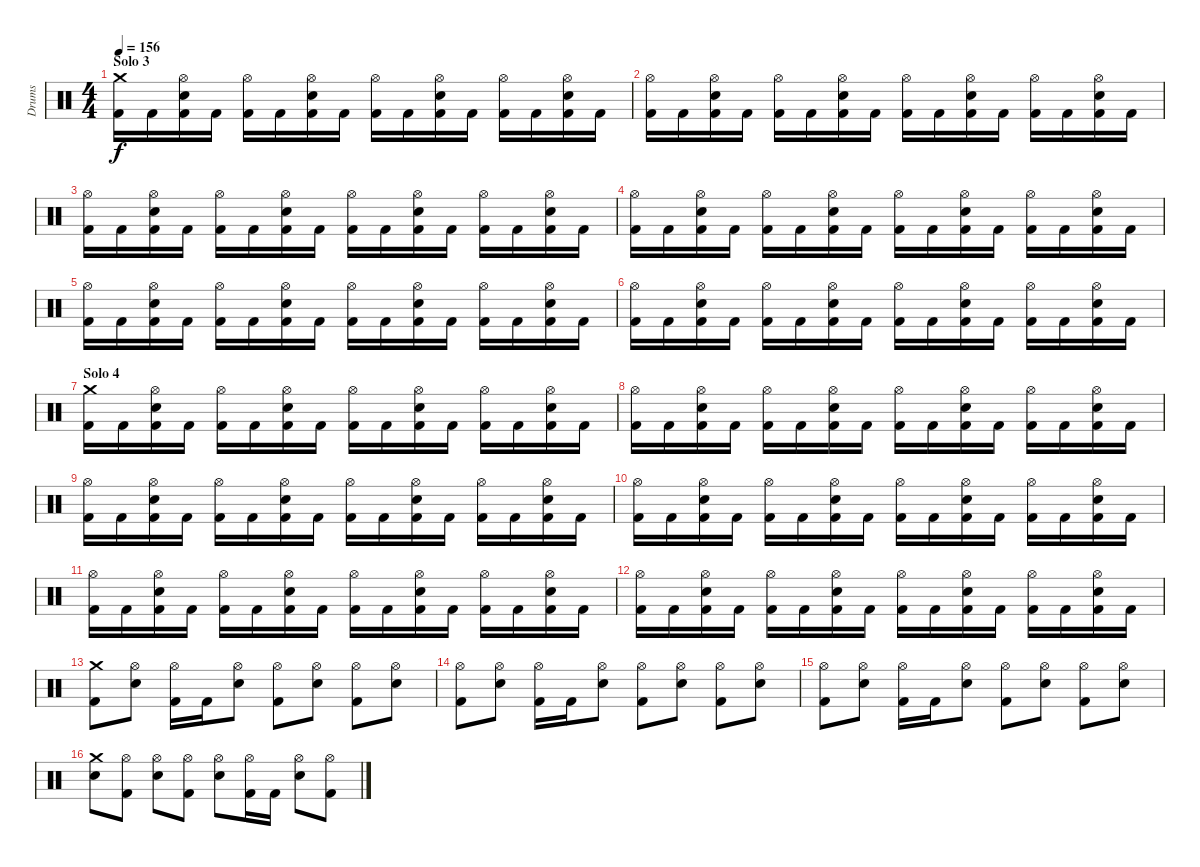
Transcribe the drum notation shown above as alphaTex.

\track ("Drums" "Drums") {instrument percussion}
\staff {score}
\articulation defaults
\ts (4 4)
\section ("" "Solo 3")
\tempo 156
\clef neutral
\ks c
("Kick (hit) 2" "Crash medium (hit)").16{dy f} "Kick (hit) 2".16 ("Kick (hit) 2" "Snare (hit) 2" "Hi-Hat (open)").16 "Kick (hit) 2".16 ("Kick (hit) 2" "Hi-Hat (open)").16 "Kick (hit) 2".16 ("Kick (hit) 2" "Snare (hit) 2" "Hi-Hat (open)").16 "Kick (hit) 2".16 ("Kick (hit) 2" "Hi-Hat (open)").16 "Kick (hit) 2".16 ("Kick (hit) 2" "Snare (hit) 2" "Hi-Hat (open)").16 "Kick (hit) 2".16 ("Kick (hit) 2" "Hi-Hat (open)").16 "Kick (hit) 2".16 ("Kick (hit) 2" "Snare (hit) 2" "Hi-Hat (open)").16 "Kick (hit) 2".16 |
("Kick (hit) 2" "Hi-Hat (open)").16 "Kick (hit) 2".16 ("Kick (hit) 2" "Snare (hit) 2" "Hi-Hat (open)").16 "Kick (hit) 2".16 ("Kick (hit) 2" "Hi-Hat (open)").16 "Kick (hit) 2".16 ("Kick (hit) 2" "Snare (hit) 2" "Hi-Hat (open)").16 "Kick (hit) 2".16 ("Kick (hit) 2" "Hi-Hat (open)").16 "Kick (hit) 2".16 ("Kick (hit) 2" "Snare (hit) 2" "Hi-Hat (open)").16 "Kick (hit) 2".16 ("Kick (hit) 2" "Hi-Hat (open)").16 "Kick (hit) 2".16 ("Kick (hit) 2" "Snare (hit) 2" "Hi-Hat (open)").16 "Kick (hit) 2".16 |
("Kick (hit) 2" "Hi-Hat (open)").16 "Kick (hit) 2".16 ("Kick (hit) 2" "Snare (hit) 2" "Hi-Hat (open)").16 "Kick (hit) 2".16 ("Kick (hit) 2" "Hi-Hat (open)").16 "Kick (hit) 2".16 ("Kick (hit) 2" "Snare (hit) 2" "Hi-Hat (open)").16 "Kick (hit) 2".16 ("Kick (hit) 2" "Hi-Hat (open)").16 "Kick (hit) 2".16 ("Kick (hit) 2" "Snare (hit) 2" "Hi-Hat (open)").16 "Kick (hit) 2".16 ("Kick (hit) 2" "Hi-Hat (open)").16 "Kick (hit) 2".16 ("Kick (hit) 2" "Snare (hit) 2" "Hi-Hat (open)").16 "Kick (hit) 2".16 |
("Kick (hit) 2" "Hi-Hat (open)").16 "Kick (hit) 2".16 ("Kick (hit) 2" "Snare (hit) 2" "Hi-Hat (open)").16 "Kick (hit) 2".16 ("Kick (hit) 2" "Hi-Hat (open)").16 "Kick (hit) 2".16 ("Kick (hit) 2" "Snare (hit) 2" "Hi-Hat (open)").16 "Kick (hit) 2".16 ("Kick (hit) 2" "Hi-Hat (open)").16 "Kick (hit) 2".16 ("Kick (hit) 2" "Snare (hit) 2" "Hi-Hat (open)").16 "Kick (hit) 2".16 ("Kick (hit) 2" "Hi-Hat (open)").16 "Kick (hit) 2".16 ("Kick (hit) 2" "Snare (hit) 2" "Hi-Hat (open)").16 "Kick (hit) 2".16 |
("Kick (hit) 2" "Hi-Hat (open)").16 "Kick (hit) 2".16 ("Kick (hit) 2" "Snare (hit) 2" "Hi-Hat (open)").16 "Kick (hit) 2".16 ("Kick (hit) 2" "Hi-Hat (open)").16 "Kick (hit) 2".16 ("Kick (hit) 2" "Snare (hit) 2" "Hi-Hat (open)").16 "Kick (hit) 2".16 ("Kick (hit) 2" "Hi-Hat (open)").16 "Kick (hit) 2".16 ("Kick (hit) 2" "Snare (hit) 2" "Hi-Hat (open)").16 "Kick (hit) 2".16 ("Kick (hit) 2" "Hi-Hat (open)").16 "Kick (hit) 2".16 ("Kick (hit) 2" "Snare (hit) 2" "Hi-Hat (open)").16 "Kick (hit) 2".16 |
("Kick (hit) 2" "Hi-Hat (open)").16 "Kick (hit) 2".16 ("Kick (hit) 2" "Snare (hit) 2" "Hi-Hat (open)").16 "Kick (hit) 2".16 ("Kick (hit) 2" "Hi-Hat (open)").16 "Kick (hit) 2".16 ("Kick (hit) 2" "Snare (hit) 2" "Hi-Hat (open)").16 "Kick (hit) 2".16 ("Kick (hit) 2" "Hi-Hat (open)").16 "Kick (hit) 2".16 ("Kick (hit) 2" "Snare (hit) 2" "Hi-Hat (open)").16 "Kick (hit) 2".16 ("Kick (hit) 2" "Hi-Hat (open)").16 "Kick (hit) 2".16 ("Kick (hit) 2" "Snare (hit) 2" "Hi-Hat (open)").16 "Kick (hit) 2".16 |
\section ("" "Solo 4")
("Kick (hit) 2" "Crash medium (hit)").16 "Kick (hit) 2".16 ("Kick (hit) 2" "Snare (hit) 2" "Hi-Hat (open)").16 "Kick (hit) 2".16 ("Kick (hit) 2" "Hi-Hat (open)").16 "Kick (hit) 2".16 ("Kick (hit) 2" "Snare (hit) 2" "Hi-Hat (open)").16 "Kick (hit) 2".16 ("Kick (hit) 2" "Hi-Hat (open)").16 "Kick (hit) 2".16 ("Kick (hit) 2" "Snare (hit) 2" "Hi-Hat (open)").16 "Kick (hit) 2".16 ("Kick (hit) 2" "Hi-Hat (open)").16 "Kick (hit) 2".16 ("Kick (hit) 2" "Snare (hit) 2" "Hi-Hat (open)").16 "Kick (hit) 2".16 |
("Kick (hit) 2" "Hi-Hat (open)").16 "Kick (hit) 2".16 ("Kick (hit) 2" "Snare (hit) 2" "Hi-Hat (open)").16 "Kick (hit) 2".16 ("Kick (hit) 2" "Hi-Hat (open)").16 "Kick (hit) 2".16 ("Kick (hit) 2" "Snare (hit) 2" "Hi-Hat (open)").16 "Kick (hit) 2".16 ("Kick (hit) 2" "Hi-Hat (open)").16 "Kick (hit) 2".16 ("Kick (hit) 2" "Snare (hit) 2" "Hi-Hat (open)").16 "Kick (hit) 2".16 ("Kick (hit) 2" "Hi-Hat (open)").16 "Kick (hit) 2".16 ("Kick (hit) 2" "Snare (hit) 2" "Hi-Hat (open)").16 "Kick (hit) 2".16 |
("Kick (hit) 2" "Hi-Hat (open)").16 "Kick (hit) 2".16 ("Kick (hit) 2" "Snare (hit) 2" "Hi-Hat (open)").16 "Kick (hit) 2".16 ("Kick (hit) 2" "Hi-Hat (open)").16 "Kick (hit) 2".16 ("Kick (hit) 2" "Snare (hit) 2" "Hi-Hat (open)").16 "Kick (hit) 2".16 ("Kick (hit) 2" "Hi-Hat (open)").16 "Kick (hit) 2".16 ("Kick (hit) 2" "Snare (hit) 2" "Hi-Hat (open)").16 "Kick (hit) 2".16 ("Kick (hit) 2" "Hi-Hat (open)").16 "Kick (hit) 2".16 ("Kick (hit) 2" "Snare (hit) 2" "Hi-Hat (open)").16 "Kick (hit) 2".16 |
("Kick (hit) 2" "Hi-Hat (open)").16 "Kick (hit) 2".16 ("Kick (hit) 2" "Snare (hit) 2" "Hi-Hat (open)").16 "Kick (hit) 2".16 ("Kick (hit) 2" "Hi-Hat (open)").16 "Kick (hit) 2".16 ("Kick (hit) 2" "Snare (hit) 2" "Hi-Hat (open)").16 "Kick (hit) 2".16 ("Kick (hit) 2" "Hi-Hat (open)").16 "Kick (hit) 2".16 ("Kick (hit) 2" "Snare (hit) 2" "Hi-Hat (open)").16 "Kick (hit) 2".16 ("Kick (hit) 2" "Hi-Hat (open)").16 "Kick (hit) 2".16 ("Kick (hit) 2" "Snare (hit) 2" "Hi-Hat (open)").16 "Kick (hit) 2".16 |
("Kick (hit) 2" "Hi-Hat (open)").16 "Kick (hit) 2".16 ("Kick (hit) 2" "Snare (hit) 2" "Hi-Hat (open)").16 "Kick (hit) 2".16 ("Kick (hit) 2" "Hi-Hat (open)").16 "Kick (hit) 2".16 ("Kick (hit) 2" "Snare (hit) 2" "Hi-Hat (open)").16 "Kick (hit) 2".16 ("Kick (hit) 2" "Hi-Hat (open)").16 "Kick (hit) 2".16 ("Kick (hit) 2" "Snare (hit) 2" "Hi-Hat (open)").16 "Kick (hit) 2".16 ("Kick (hit) 2" "Hi-Hat (open)").16 "Kick (hit) 2".16 ("Kick (hit) 2" "Snare (hit) 2" "Hi-Hat (open)").16 "Kick (hit) 2".16 |
("Kick (hit) 2" "Hi-Hat (open)").16 "Kick (hit) 2".16 ("Kick (hit) 2" "Snare (hit) 2" "Hi-Hat (open)").16 "Kick (hit) 2".16 ("Kick (hit) 2" "Hi-Hat (open)").16 "Kick (hit) 2".16 ("Kick (hit) 2" "Snare (hit) 2" "Hi-Hat (open)").16 "Kick (hit) 2".16 ("Kick (hit) 2" "Hi-Hat (open)").16 "Kick (hit) 2".16 ("Kick (hit) 2" "Snare (hit) 2" "Hi-Hat (open)").16 "Kick (hit) 2".16 ("Kick (hit) 2" "Hi-Hat (open)").16 "Kick (hit) 2".16 ("Kick (hit) 2" "Snare (hit) 2" "Hi-Hat (open)").16 "Kick (hit) 2".16 |
("Kick (hit) 2" "Crash medium (hit)").8 ("Snare (hit) 2" "Hi-Hat (open)").8 ("Kick (hit) 2" "Hi-Hat (open)").16 "Kick (hit) 2".16 ("Snare (hit) 2" "Hi-Hat (open)").8 ("Kick (hit) 2" "Hi-Hat (open)").8 ("Snare (hit) 2" "Hi-Hat (open)").8 ("Kick (hit) 2" "Hi-Hat (open)").8 ("Snare (hit) 2" "Hi-Hat (open)").8 |
("Kick (hit) 2" "Hi-Hat (open)").8 ("Snare (hit) 2" "Hi-Hat (open)").8 ("Kick (hit) 2" "Hi-Hat (open)").16 "Kick (hit) 2".16 ("Snare (hit) 2" "Hi-Hat (open)").8 ("Kick (hit) 2" "Hi-Hat (open)").8 ("Snare (hit) 2" "Hi-Hat (open)").8 ("Kick (hit) 2" "Hi-Hat (open)").8 ("Snare (hit) 2" "Hi-Hat (open)").8 |
("Kick (hit) 2" "Hi-Hat (open)").8 ("Snare (hit) 2" "Hi-Hat (open)").8 ("Kick (hit) 2" "Hi-Hat (open)").16 "Kick (hit) 2".16 ("Snare (hit) 2" "Hi-Hat (open)").8 ("Kick (hit) 2" "Hi-Hat (open)").8 ("Snare (hit) 2" "Hi-Hat (open)").8 ("Kick (hit) 2" "Hi-Hat (open)").8 ("Snare (hit) 2" "Hi-Hat (open)").8 |
("Snare (hit) 2" "Crash medium (hit)").8 ("Kick (hit) 2" "Hi-Hat (open)").8 ("Snare (hit) 2" "Hi-Hat (open)").8 ("Kick (hit) 2" "Hi-Hat (open)").8 ("Snare (hit) 2" "Hi-Hat (open)").8 ("Kick (hit) 2" "Hi-Hat (open)").16 "Kick (hit) 2".16 ("Snare (hit) 2" "Hi-Hat (open)").8 ("Kick (hit) 2" "Hi-Hat (open)").8
